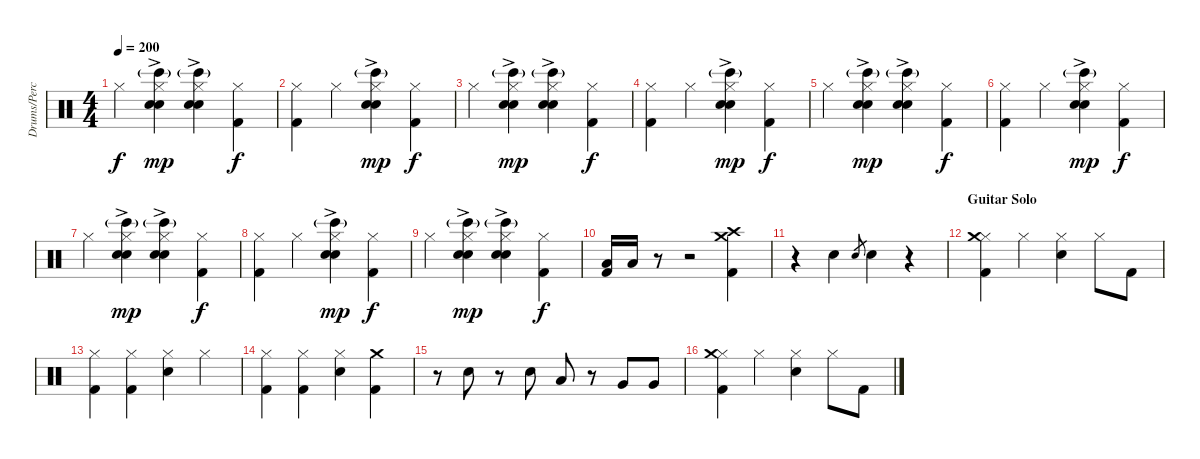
\track ("Drums/Percussion" "Drums/Perc") {instrument percussion}
\staff {score}
\articulation defaults
\ts (4 4)
\tempo 200
\clef neutral
\ks c "Hi-Hat (closed)".4{dy f}
("Snare (hit) 2" "Hi-Hat (closed)" "Hand Clap (hit)"{ac} "Bongo High (hit)"{g}).4{dy mp} ("Snare (hit) 2" "Hi-Hat (closed)" "Hand Clap (hit)"{ac} "Bongo High (hit)"{g}).4 ("Kick (hit) 2" "Hi-Hat (closed)").4{dy f} |
("Kick (hit) 2" "Hi-Hat (closed)").4 "Hi-Hat (closed)".4 ("Snare (hit) 2" "Hi-Hat (closed)" "Hand Clap (hit)"{ac} "Bongo High (hit)"{g}).4{dy mp} ("Kick (hit) 2" "Hi-Hat (closed)").4{dy f} |
"Hi-Hat (closed)".4 ("Snare (hit) 2" "Hi-Hat (closed)" "Hand Clap (hit)"{ac} "Bongo High (hit)"{g}).4{dy mp} ("Snare (hit) 2" "Hi-Hat (closed)" "Hand Clap (hit)"{ac} "Bongo High (hit)"{g}).4 ("Kick (hit) 2" "Hi-Hat (closed)").4{dy f} |
("Kick (hit) 2" "Hi-Hat (closed)").4 "Hi-Hat (closed)".4 ("Snare (hit) 2" "Hi-Hat (closed)" "Hand Clap (hit)"{ac} "Bongo High (hit)"{g}).4{dy mp} ("Kick (hit) 2" "Hi-Hat (closed)").4{dy f} |
"Hi-Hat (closed)".4 ("Snare (hit) 2" "Hi-Hat (closed)" "Hand Clap (hit)"{ac} "Bongo High (hit)"{g}).4{dy mp} ("Snare (hit) 2" "Hi-Hat (closed)" "Hand Clap (hit)"{ac} "Bongo High (hit)"{g}).4 ("Kick (hit) 2" "Hi-Hat (closed)").4{dy f} |
("Kick (hit) 2" "Hi-Hat (closed)").4 "Hi-Hat (closed)".4 ("Snare (hit) 2" "Hi-Hat (closed)" "Hand Clap (hit)"{ac} "Bongo High (hit)"{g}).4{dy mp} ("Kick (hit) 2" "Hi-Hat (closed)").4{dy f} |
"Hi-Hat (closed)".4 ("Snare (hit) 2" "Hi-Hat (closed)" "Hand Clap (hit)"{ac} "Bongo High (hit)"{g}).4{dy mp} ("Snare (hit) 2" "Hi-Hat (closed)" "Hand Clap (hit)"{ac} "Bongo High (hit)"{g}).4 ("Kick (hit) 2" "Hi-Hat (closed)").4{dy f} |
("Kick (hit) 2" "Hi-Hat (closed)").4 "Hi-Hat (closed)".4 ("Snare (hit) 2" "Hi-Hat (closed)" "Hand Clap (hit)"{ac} "Bongo High (hit)"{g}).4{dy mp} ("Kick (hit) 2" "Hi-Hat (closed)").4{dy f} |
"Hi-Hat (closed)".4 ("Snare (hit) 2" "Hi-Hat (closed)" "Hand Clap (hit)"{ac} "Bongo High (hit)"{g}).4{dy mp} ("Snare (hit) 2" "Hi-Hat (closed)" "Hand Clap (hit)"{ac} "Bongo High (hit)"{g}).4 ("Kick (hit) 2" "Hi-Hat (closed)").4{dy f} |
("Kick (hit) 2" "Low Floor Tom (hit)").16 "Low Floor Tom (hit)".16 r.8 r.2 ("Kick (hit) 2" "Crash high (hit)" "Crash medium (hit)").4 |
r.4 "Snare (hit) 2".4 "Snare (hit) 2".8{gr} "Snare (hit) 2".4 r.4 |
\section ("" "Guitar Solo")
("Kick (hit) 2" "Hi-Hat (closed)" "Crash medium (hit)").4 "Hi-Hat (closed)".4 ("Snare (hit) 2" "Hi-Hat (closed)").4 "Hi-Hat (closed)".8 "Kick (hit) 2".8 |
("Kick (hit) 2" "Hi-Hat (closed)").4 ("Kick (hit) 2" "Hi-Hat (closed)").4 ("Snare (hit) 2" "Hi-Hat (closed)").4 "Hi-Hat (closed)".4 |
("Kick (hit) 2" "Hi-Hat (closed)").4 ("Kick (hit) 2" "Hi-Hat (closed)").4 ("Snare (hit) 2" "Hi-Hat (closed)").4 ("Kick (hit) 2" "Crash medium (hit)").4 |
r.8 "Snare (hit) 2".8 r.8 "Snare (hit) 2".8 "Low Tom (hit)".8 r.8 "Very Low Tom (hit)".8 "Very Low Tom (hit)".8 |
("Kick (hit) 2" "Hi-Hat (closed)" "Crash medium (hit)").4 "Hi-Hat (closed)".4 ("Snare (hit) 2" "Hi-Hat (closed)").4 "Hi-Hat (closed)".8 "Kick (hit) 2".8
